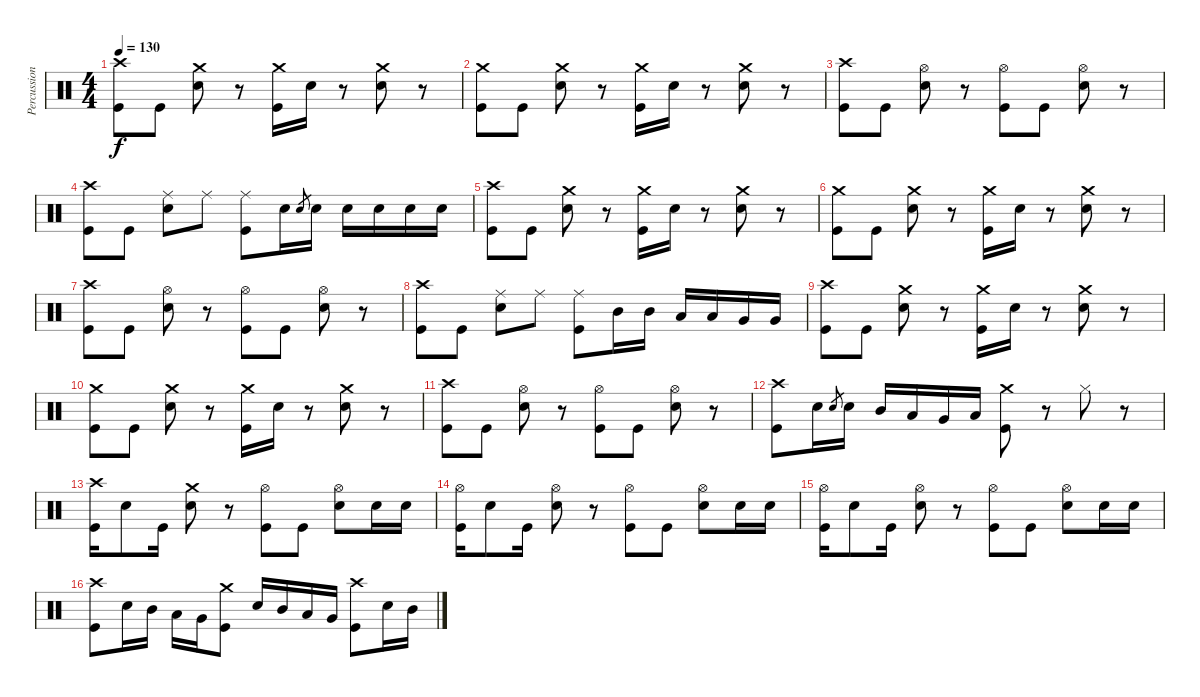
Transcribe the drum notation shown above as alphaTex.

\track ("Percussion" "Percussion") {instrument percussion}
\staff {score}
\articulation defaults
\ts (4 4)
\tempo 130
\clef neutral
\ks c
("Crash high (hit)" "Kick (hit)").8{dy f} "Kick (hit)".8 ("Crash medium (hit)" "Electric Snare (hit)").8 r.8 ("Crash medium (hit)" "Kick (hit)").16 "Electric Snare (hit)".16 r.8 ("Crash medium (hit)" "Electric Snare (hit)").8 r.8 |
("Crash medium (hit)" "Kick (hit)").8 "Kick (hit)".8 ("Crash medium (hit)" "Electric Snare (hit)").8 r.8 ("Crash medium (hit)" "Kick (hit)").16 "Electric Snare (hit)".16 r.8 ("Crash medium (hit)" "Electric Snare (hit)").8 r.8 |
("Crash high (hit)" "Kick (hit)").8 "Kick (hit)".8 ("Hi-Hat (open)" "Electric Snare (hit)").8 r.8 ("Hi-Hat (open)" "Kick (hit)").8 "Kick (hit)".8 ("Hi-Hat (open)" "Electric Snare (hit)").8 r.8 |
("Crash high (hit)" "Kick (hit)").8 "Kick (hit)".8 ("Ride (middle)" "Electric Snare (hit)").8 "Ride (middle)".8 ("Ride (middle)" "Kick (hit)").8 "Electric Snare (hit)".16 "Electric Snare (hit)".8{gr} "Electric Snare (hit)".16 "Electric Snare (hit)".16 "Electric Snare (hit)".16 "Electric Snare (hit)".16 "Electric Snare (hit)".16 |
("Crash high (hit)" "Kick (hit)").8 "Kick (hit)".8 ("Crash medium (hit)" "Electric Snare (hit)").8 r.8 ("Crash medium (hit)" "Kick (hit)").16 "Electric Snare (hit)".16 r.8 ("Crash medium (hit)" "Electric Snare (hit)").8 r.8 |
("Crash medium (hit)" "Kick (hit)").8 "Kick (hit)".8 ("Crash medium (hit)" "Electric Snare (hit)").8 r.8 ("Crash medium (hit)" "Kick (hit)").16 "Electric Snare (hit)".16 r.8 ("Crash medium (hit)" "Electric Snare (hit)").8 r.8 |
("Crash high (hit)" "Kick (hit)").8 "Kick (hit)".8 ("Hi-Hat (open)" "Electric Snare (hit)").8 r.8 ("Hi-Hat (open)" "Kick (hit)").8 "Kick (hit)".8 ("Hi-Hat (open)" "Electric Snare (hit)").8 r.8 |
("Crash high (hit)" "Kick (hit)").8 "Kick (hit)".8 ("Ride (middle)" "Electric Snare (hit)").8 "Ride (middle)".8 ("Ride (middle)" "Kick (hit)").8 "Mid Tom (hit)".16 "Mid Tom (hit)".16 "Low Tom (hit)".16 "Low Tom (hit)".16 "Very Low Tom (hit)".16 "Very Low Tom (hit)".16 |
("Crash high (hit)" "Kick (hit)").8 "Kick (hit)".8 ("Crash medium (hit)" "Electric Snare (hit)").8 r.8 ("Crash medium (hit)" "Kick (hit)").16 "Electric Snare (hit)".16 r.8 ("Crash medium (hit)" "Electric Snare (hit)").8 r.8 |
("Crash medium (hit)" "Kick (hit)").8 "Kick (hit)".8 ("Crash medium (hit)" "Electric Snare (hit)").8 r.8 ("Crash medium (hit)" "Kick (hit)").16 "Electric Snare (hit)".16 r.8 ("Crash medium (hit)" "Electric Snare (hit)").8 r.8 |
("Crash high (hit)" "Kick (hit)").8 "Kick (hit)".8 ("Hi-Hat (open)" "Electric Snare (hit)").8 r.8 ("Hi-Hat (open)" "Kick (hit)").8 "Kick (hit)".8 ("Hi-Hat (open)" "Electric Snare (hit)").8 r.8 |
("Crash high (hit)" "Kick (hit)").8 "Electric Snare (hit)".16 "Electric Snare (hit)".8{gr} "Electric Snare (hit)".16 "Mid Tom (hit)".16 "Low Tom (hit)".16 "Very Low Tom (hit)".16 "Low Floor Tom (hit)".16 ("Crash medium (hit)" "Kick (hit)").8 r.8 "Hi-Hat (closed)".8 r.8 |
("Crash high (hit)" "Kick (hit)").16 "Electric Snare (hit)".8 "Kick (hit)".16 ("Crash medium (hit)" "Electric Snare (hit)").8 r.8 ("Hi-Hat (open)" "Kick (hit)").8 "Kick (hit)".8 ("Hi-Hat (open)" "Electric Snare (hit)").8 "Electric Snare (hit)".16 "Electric Snare (hit)".16 |
("Hi-Hat (open)" "Kick (hit)").16 "Electric Snare (hit)".8 "Kick (hit)".16 ("Hi-Hat (open)" "Electric Snare (hit)").8 r.8 ("Hi-Hat (open)" "Kick (hit)").8 "Kick (hit)".8 ("Hi-Hat (open)" "Electric Snare (hit)").8 "Electric Snare (hit)".16 "Electric Snare (hit)".16 |
("Hi-Hat (open)" "Kick (hit)").16 "Electric Snare (hit)".8 "Kick (hit)".16 ("Hi-Hat (open)" "Electric Snare (hit)").8 r.8 ("Hi-Hat (open)" "Kick (hit)").8 "Kick (hit)".8 ("Hi-Hat (open)" "Electric Snare (hit)").8 "Electric Snare (hit)".16 "Electric Snare (hit)".16 |
("Crash high (hit)" "Kick (hit)").8 "Electric Snare (hit)".16 "Mid Tom (hit)".16 "Low Tom (hit)".16 "Very Low Tom (hit)".16 ("Crash medium (hit)" "Kick (hit)").8 "Electric Snare (hit)".16 "Mid Tom (hit)".16 "Low Tom (hit)".16 "Very Low Tom (hit)".16 ("Crash high (hit)" "Kick (hit)").8 "Electric Snare (hit)".16 "Mid Tom (hit)".16
